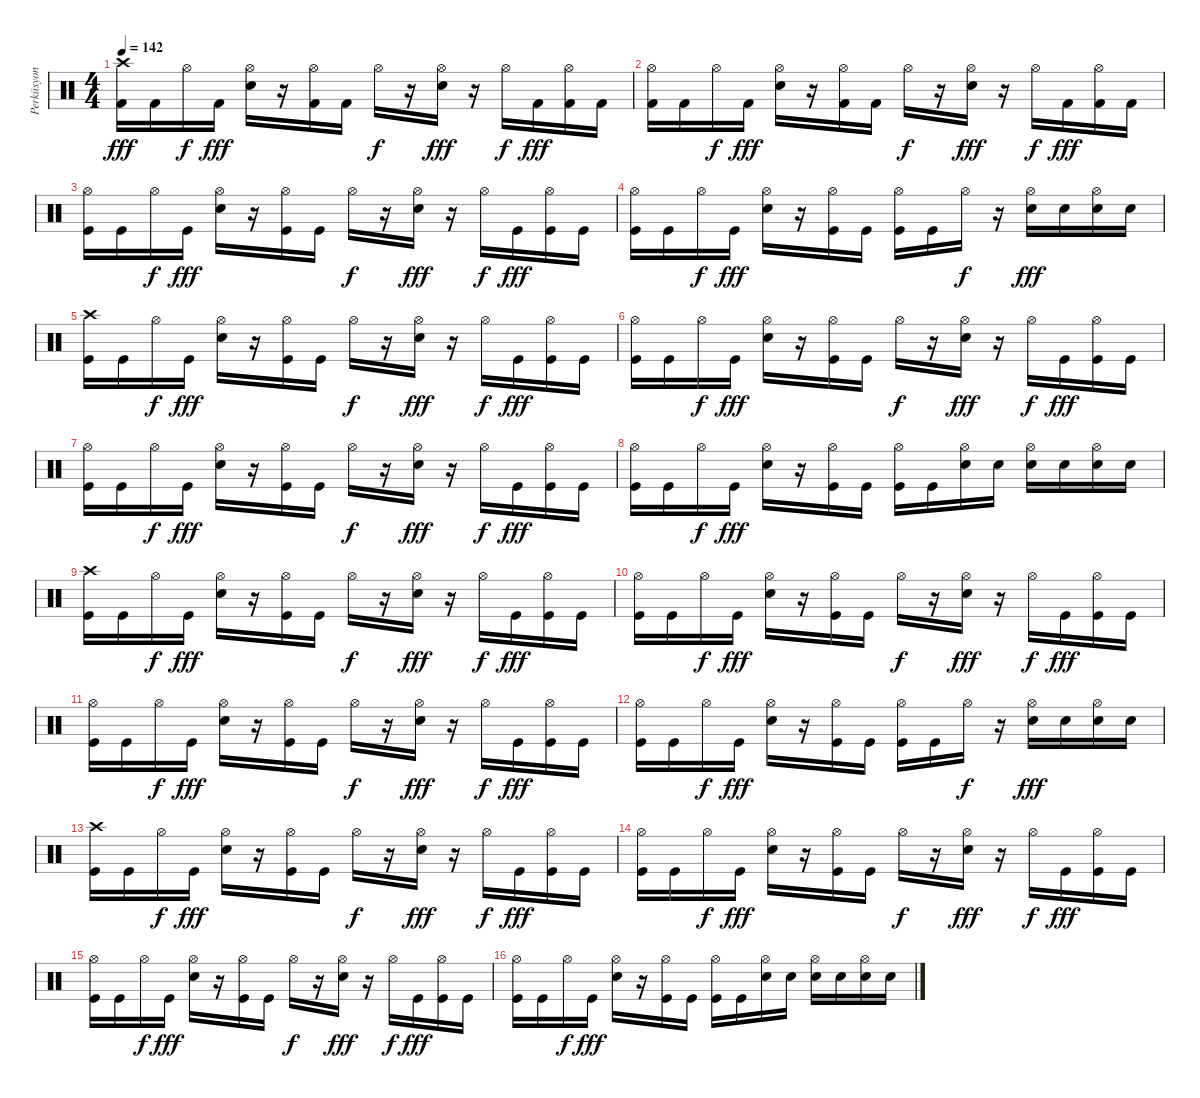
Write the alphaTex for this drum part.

\track ("Perküsyon" "Perküsyon") {instrument percussion}
\staff {score}
\articulation defaults
\ts (4 4)
\tempo 142
\clef neutral
\ks c
("Kick (hit) 2" "Crash high (hit)").16{dy fff} "Kick (hit) 2".16 "Hi-Hat (open)".16{dy f} "Kick (hit) 2".16{dy fff} ("Hi-Hat (open)" "Snare (hit) 2").16 r.16 ("Hi-Hat (open)" "Kick (hit) 2").16 "Kick (hit) 2".16 "Hi-Hat (open)".16{dy f} r.16 ("Hi-Hat (open)" "Snare (hit) 2").16{dy fff} r.16 "Hi-Hat (open)".16{dy f} "Kick (hit) 2".16{dy fff} ("Hi-Hat (open)" "Kick (hit) 2").16 "Kick (hit) 2".16 |
("Hi-Hat (open)" "Kick (hit) 2").16 "Kick (hit) 2".16 "Hi-Hat (open)".16{dy f} "Kick (hit) 2".16{dy fff} ("Hi-Hat (open)" "Snare (hit) 2").16 r.16 ("Hi-Hat (open)" "Kick (hit) 2").16 "Kick (hit) 2".16 "Hi-Hat (open)".16{dy f} r.16 ("Hi-Hat (open)" "Snare (hit) 2").16{dy fff} r.16 "Hi-Hat (open)".16{dy f} "Kick (hit) 2".16{dy fff} ("Hi-Hat (open)" "Kick (hit) 2").16 "Kick (hit) 2".16 |
("Hi-Hat (open)" "Kick (hit)").16 "Kick (hit)".16 "Hi-Hat (open)".16{dy f} "Kick (hit)".16{dy fff} ("Hi-Hat (open)" "Snare (hit) 2").16 r.16 ("Hi-Hat (open)" "Kick (hit)").16 "Kick (hit)".16 "Hi-Hat (open)".16{dy f} r.16 ("Hi-Hat (open)" "Snare (hit) 2").16{dy fff} r.16 "Hi-Hat (open)".16{dy f} "Kick (hit)".16{dy fff} ("Hi-Hat (open)" "Kick (hit)").16 "Kick (hit)".16 |
("Hi-Hat (open)" "Kick (hit)").16 "Kick (hit)".16 "Hi-Hat (open)".16{dy f} "Kick (hit)".16{dy fff} ("Hi-Hat (open)" "Snare (hit) 2").16 r.16 ("Hi-Hat (open)" "Kick (hit)").16 "Kick (hit)".16 ("Hi-Hat (open)" "Kick (hit)").16 "Kick (hit)".16 "Hi-Hat (open)".16{dy f} r.16 ("Hi-Hat (open)" "Snare (hit) 2").16{dy fff} "Snare (hit) 2".16 ("Hi-Hat (open)" "Snare (hit) 2").16 "Snare (hit) 2".16 |
("Kick (hit)" "Crash high (hit)").16 "Kick (hit)".16 "Hi-Hat (open)".16{dy f} "Kick (hit)".16{dy fff} ("Hi-Hat (open)" "Snare (hit) 2").16 r.16 ("Hi-Hat (open)" "Kick (hit)").16 "Kick (hit)".16 "Hi-Hat (open)".16{dy f} r.16 ("Hi-Hat (open)" "Snare (hit) 2").16{dy fff} r.16 "Hi-Hat (open)".16{dy f} "Kick (hit)".16{dy fff} ("Hi-Hat (open)" "Kick (hit)").16 "Kick (hit)".16 |
("Hi-Hat (open)" "Kick (hit)").16 "Kick (hit)".16 "Hi-Hat (open)".16{dy f} "Kick (hit)".16{dy fff} ("Hi-Hat (open)" "Snare (hit) 2").16 r.16 ("Hi-Hat (open)" "Kick (hit)").16 "Kick (hit)".16 "Hi-Hat (open)".16{dy f} r.16 ("Hi-Hat (open)" "Snare (hit) 2").16{dy fff} r.16 "Hi-Hat (open)".16{dy f} "Kick (hit)".16{dy fff} ("Hi-Hat (open)" "Kick (hit)").16 "Kick (hit)".16 |
("Hi-Hat (open)" "Kick (hit)").16 "Kick (hit)".16 "Hi-Hat (open)".16{dy f} "Kick (hit)".16{dy fff} ("Hi-Hat (open)" "Snare (hit) 2").16 r.16 ("Hi-Hat (open)" "Kick (hit)").16 "Kick (hit)".16 "Hi-Hat (open)".16{dy f} r.16 ("Hi-Hat (open)" "Snare (hit) 2").16{dy fff} r.16 "Hi-Hat (open)".16{dy f} "Kick (hit)".16{dy fff} ("Hi-Hat (open)" "Kick (hit)").16 "Kick (hit)".16 |
("Hi-Hat (open)" "Kick (hit)").16 "Kick (hit)".16 "Hi-Hat (open)".16{dy f} "Kick (hit)".16{dy fff} ("Hi-Hat (open)" "Snare (hit) 2").16 r.16 ("Hi-Hat (open)" "Kick (hit)").16 "Kick (hit)".16 ("Hi-Hat (open)" "Kick (hit)").16 "Kick (hit)".16 ("Hi-Hat (open)" "Snare (hit) 2").16 "Snare (hit) 2".16 ("Hi-Hat (open)" "Snare (hit) 2").16 "Snare (hit) 2".16 ("Hi-Hat (open)" "Snare (hit) 2").16 "Snare (hit) 2".16 |
("Kick (hit)" "Crash high (hit)").16 "Kick (hit)".16 "Hi-Hat (open)".16{dy f} "Kick (hit)".16{dy fff} ("Hi-Hat (open)" "Snare (hit) 2").16 r.16 ("Hi-Hat (open)" "Kick (hit)").16 "Kick (hit)".16 "Hi-Hat (open)".16{dy f} r.16 ("Hi-Hat (open)" "Snare (hit) 2").16{dy fff} r.16 "Hi-Hat (open)".16{dy f} "Kick (hit)".16{dy fff} ("Hi-Hat (open)" "Kick (hit)").16 "Kick (hit)".16 |
("Hi-Hat (open)" "Kick (hit)").16 "Kick (hit)".16 "Hi-Hat (open)".16{dy f} "Kick (hit)".16{dy fff} ("Hi-Hat (open)" "Snare (hit) 2").16 r.16 ("Hi-Hat (open)" "Kick (hit)").16 "Kick (hit)".16 "Hi-Hat (open)".16{dy f} r.16 ("Hi-Hat (open)" "Snare (hit) 2").16{dy fff} r.16 "Hi-Hat (open)".16{dy f} "Kick (hit)".16{dy fff} ("Hi-Hat (open)" "Kick (hit)").16 "Kick (hit)".16 |
("Hi-Hat (open)" "Kick (hit)").16 "Kick (hit)".16 "Hi-Hat (open)".16{dy f} "Kick (hit)".16{dy fff} ("Hi-Hat (open)" "Snare (hit) 2").16 r.16 ("Hi-Hat (open)" "Kick (hit)").16 "Kick (hit)".16 "Hi-Hat (open)".16{dy f} r.16 ("Hi-Hat (open)" "Snare (hit) 2").16{dy fff} r.16 "Hi-Hat (open)".16{dy f} "Kick (hit)".16{dy fff} ("Hi-Hat (open)" "Kick (hit)").16 "Kick (hit)".16 |
("Hi-Hat (open)" "Kick (hit)").16 "Kick (hit)".16 "Hi-Hat (open)".16{dy f} "Kick (hit)".16{dy fff} ("Hi-Hat (open)" "Snare (hit) 2").16 r.16 ("Hi-Hat (open)" "Kick (hit)").16 "Kick (hit)".16 ("Hi-Hat (open)" "Kick (hit)").16 "Kick (hit)".16 "Hi-Hat (open)".16{dy f} r.16 ("Hi-Hat (open)" "Snare (hit) 2").16{dy fff} "Snare (hit) 2".16 ("Hi-Hat (open)" "Snare (hit) 2").16 "Snare (hit) 2".16 |
("Kick (hit)" "Crash high (hit)").16 "Kick (hit)".16 "Hi-Hat (open)".16{dy f} "Kick (hit)".16{dy fff} ("Hi-Hat (open)" "Snare (hit) 2").16 r.16 ("Hi-Hat (open)" "Kick (hit)").16 "Kick (hit)".16 "Hi-Hat (open)".16{dy f} r.16 ("Hi-Hat (open)" "Snare (hit) 2").16{dy fff} r.16 "Hi-Hat (open)".16{dy f} "Kick (hit)".16{dy fff} ("Hi-Hat (open)" "Kick (hit)").16 "Kick (hit)".16 |
("Hi-Hat (open)" "Kick (hit)").16 "Kick (hit)".16 "Hi-Hat (open)".16{dy f} "Kick (hit)".16{dy fff} ("Hi-Hat (open)" "Snare (hit) 2").16 r.16 ("Hi-Hat (open)" "Kick (hit)").16 "Kick (hit)".16 "Hi-Hat (open)".16{dy f} r.16 ("Hi-Hat (open)" "Snare (hit) 2").16{dy fff} r.16 "Hi-Hat (open)".16{dy f} "Kick (hit)".16{dy fff} ("Hi-Hat (open)" "Kick (hit)").16 "Kick (hit)".16 |
("Hi-Hat (open)" "Kick (hit)").16 "Kick (hit)".16 "Hi-Hat (open)".16{dy f} "Kick (hit)".16{dy fff} ("Hi-Hat (open)" "Snare (hit) 2").16 r.16 ("Hi-Hat (open)" "Kick (hit)").16 "Kick (hit)".16 "Hi-Hat (open)".16{dy f} r.16 ("Hi-Hat (open)" "Snare (hit) 2").16{dy fff} r.16 "Hi-Hat (open)".16{dy f} "Kick (hit)".16{dy fff} ("Hi-Hat (open)" "Kick (hit)").16 "Kick (hit)".16 |
("Hi-Hat (open)" "Kick (hit)").16 "Kick (hit)".16 "Hi-Hat (open)".16{dy f} "Kick (hit)".16{dy fff} ("Hi-Hat (open)" "Snare (hit) 2").16 r.16 ("Hi-Hat (open)" "Kick (hit)").16 "Kick (hit)".16 ("Hi-Hat (open)" "Kick (hit)").16 "Kick (hit)".16 ("Hi-Hat (open)" "Snare (hit) 2").16 "Snare (hit) 2".16 ("Hi-Hat (open)" "Snare (hit) 2").16 "Snare (hit) 2".16 ("Hi-Hat (open)" "Snare (hit) 2").16 "Snare (hit) 2".16
